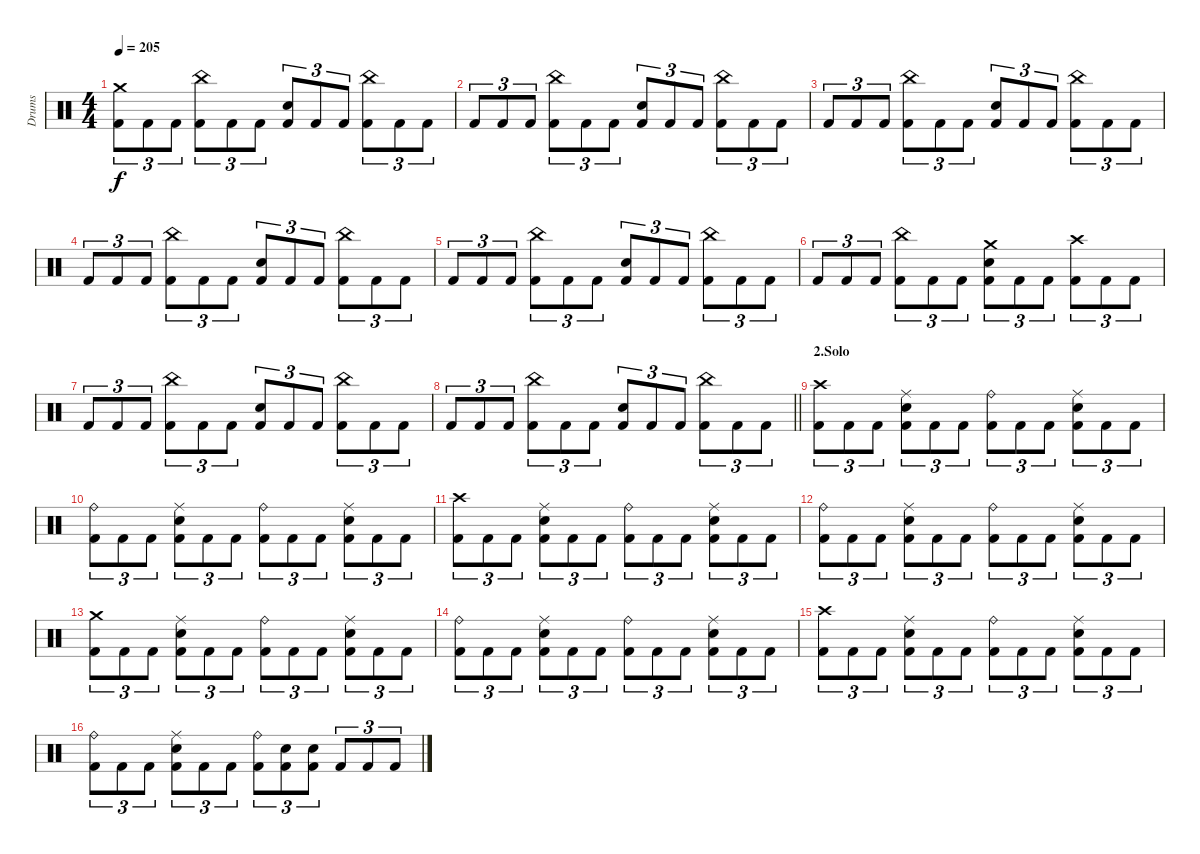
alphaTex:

\track ("Drums" "Drums") {instrument percussion}
\staff {score}
\articulation defaults
\ts (4 4)
\tempo 205
\clef neutral
\ks c
("Crash medium (hit)" "Kick (hit) 2").8{tu (3 2) dy f} "Kick (hit) 2".8{tu (3 2)} "Kick (hit) 2".8{tu (3 2)} ("China (hit)" "Kick (hit) 2").8{tu (3 2)} "Kick (hit) 2".8{tu (3 2)} "Kick (hit) 2".8{tu (3 2)} ("Electric Snare (hit)" "Kick (hit) 2").8{tu (3 2)} "Kick (hit) 2".8{tu (3 2)} "Kick (hit) 2".8{tu (3 2)} ("China (hit)" "Kick (hit) 2").8{tu (3 2)} "Kick (hit) 2".8{tu (3 2)} "Kick (hit) 2".8{tu (3 2)} |
"Kick (hit) 2".8{tu (3 2)} "Kick (hit) 2".8{tu (3 2)} "Kick (hit) 2".8{tu (3 2)} ("China (hit)" "Kick (hit) 2").8{tu (3 2)} "Kick (hit) 2".8{tu (3 2)} "Kick (hit) 2".8{tu (3 2)} ("Electric Snare (hit)" "Kick (hit) 2").8{tu (3 2)} "Kick (hit) 2".8{tu (3 2)} "Kick (hit) 2".8{tu (3 2)} ("China (hit)" "Kick (hit) 2").8{tu (3 2)} "Kick (hit) 2".8{tu (3 2)} "Kick (hit) 2".8{tu (3 2)} |
"Kick (hit) 2".8{tu (3 2)} "Kick (hit) 2".8{tu (3 2)} "Kick (hit) 2".8{tu (3 2)} ("China (hit)" "Kick (hit) 2").8{tu (3 2)} "Kick (hit) 2".8{tu (3 2)} "Kick (hit) 2".8{tu (3 2)} ("Electric Snare (hit)" "Kick (hit) 2").8{tu (3 2)} "Kick (hit) 2".8{tu (3 2)} "Kick (hit) 2".8{tu (3 2)} ("China (hit)" "Kick (hit) 2").8{tu (3 2)} "Kick (hit) 2".8{tu (3 2)} "Kick (hit) 2".8{tu (3 2)} |
"Kick (hit) 2".8{tu (3 2)} "Kick (hit) 2".8{tu (3 2)} "Kick (hit) 2".8{tu (3 2)} ("China (hit)" "Kick (hit) 2").8{tu (3 2)} "Kick (hit) 2".8{tu (3 2)} "Kick (hit) 2".8{tu (3 2)} ("Electric Snare (hit)" "Kick (hit) 2").8{tu (3 2)} "Kick (hit) 2".8{tu (3 2)} "Kick (hit) 2".8{tu (3 2)} ("China (hit)" "Kick (hit) 2").8{tu (3 2)} "Kick (hit) 2".8{tu (3 2)} "Kick (hit) 2".8{tu (3 2)} |
"Kick (hit) 2".8{tu (3 2)} "Kick (hit) 2".8{tu (3 2)} "Kick (hit) 2".8{tu (3 2)} ("China (hit)" "Kick (hit) 2").8{tu (3 2)} "Kick (hit) 2".8{tu (3 2)} "Kick (hit) 2".8{tu (3 2)} ("Electric Snare (hit)" "Kick (hit) 2").8{tu (3 2)} "Kick (hit) 2".8{tu (3 2)} "Kick (hit) 2".8{tu (3 2)} ("China (hit)" "Kick (hit) 2").8{tu (3 2)} "Kick (hit) 2".8{tu (3 2)} "Kick (hit) 2".8{tu (3 2)} |
"Kick (hit) 2".8{tu (3 2)} "Kick (hit) 2".8{tu (3 2)} "Kick (hit) 2".8{tu (3 2)} ("China (hit)" "Kick (hit) 2").8{tu (3 2)} "Kick (hit) 2".8{tu (3 2)} "Kick (hit) 2".8{tu (3 2)} ("Crash medium (hit)" "Electric Snare (hit)" "Kick (hit) 2").8{tu (3 2)} "Kick (hit) 2".8{tu (3 2)} "Kick (hit) 2".8{tu (3 2)} ("Crash high (hit)" "Kick (hit) 2").8{tu (3 2)} "Kick (hit) 2".8{tu (3 2)} "Kick (hit) 2".8{tu (3 2)} |
"Kick (hit) 2".8{tu (3 2)} "Kick (hit) 2".8{tu (3 2)} "Kick (hit) 2".8{tu (3 2)} ("China (hit)" "Kick (hit) 2").8{tu (3 2)} "Kick (hit) 2".8{tu (3 2)} "Kick (hit) 2".8{tu (3 2)} ("Electric Snare (hit)" "Kick (hit) 2").8{tu (3 2)} "Kick (hit) 2".8{tu (3 2)} "Kick (hit) 2".8{tu (3 2)} ("China (hit)" "Kick (hit) 2").8{tu (3 2)} "Kick (hit) 2".8{tu (3 2)} "Kick (hit) 2".8{tu (3 2)} |
\barLineRight lightlight "Kick (hit) 2".8{tu (3 2)} "Kick (hit) 2".8{tu (3 2)} "Kick (hit) 2".8{tu (3 2)}
("China (hit)" "Kick (hit) 2").8{tu (3 2)} "Kick (hit) 2".8{tu (3 2)} "Kick (hit) 2".8{tu (3 2)} ("Electric Snare (hit)" "Kick (hit) 2").8{tu (3 2)} "Kick (hit) 2".8{tu (3 2)} "Kick (hit) 2".8{tu (3 2)} ("China (hit)" "Kick (hit) 2").8{tu (3 2)} "Kick (hit) 2".8{tu (3 2)} "Kick (hit) 2".8{tu (3 2)} |
\section ("" "2.Solo")
("Crash high (hit)" "Kick (hit) 2").8{tu (3 2)} "Kick (hit) 2".8{tu (3 2)} "Kick (hit) 2".8{tu (3 2)} ("Ride (middle)" "Electric Snare (hit)" "Kick (hit) 2").8{tu (3 2)} "Kick (hit) 2".8{tu (3 2)} "Kick (hit) 2".8{tu (3 2)} ("Ride (bell)" "Kick (hit) 2").8{tu (3 2)} "Kick (hit) 2".8{tu (3 2)} "Kick (hit) 2".8{tu (3 2)} ("Ride (middle)" "Electric Snare (hit)" "Kick (hit) 2").8{tu (3 2)} "Kick (hit) 2".8{tu (3 2)} "Kick (hit) 2".8{tu (3 2)} |
("Ride (bell)" "Kick (hit) 2").8{tu (3 2)} "Kick (hit) 2".8{tu (3 2)} "Kick (hit) 2".8{tu (3 2)} ("Ride (middle)" "Electric Snare (hit)" "Kick (hit) 2").8{tu (3 2)} "Kick (hit) 2".8{tu (3 2)} "Kick (hit) 2".8{tu (3 2)} ("Ride (bell)" "Kick (hit) 2").8{tu (3 2)} "Kick (hit) 2".8{tu (3 2)} "Kick (hit) 2".8{tu (3 2)} ("Ride (middle)" "Electric Snare (hit)" "Kick (hit) 2").8{tu (3 2)} "Kick (hit) 2".8{tu (3 2)} "Kick (hit) 2".8{tu (3 2)} |
("Crash high (hit)" "Kick (hit) 2").8{tu (3 2)} "Kick (hit) 2".8{tu (3 2)} "Kick (hit) 2".8{tu (3 2)} ("Ride (middle)" "Electric Snare (hit)" "Kick (hit) 2").8{tu (3 2)} "Kick (hit) 2".8{tu (3 2)} "Kick (hit) 2".8{tu (3 2)} ("Ride (bell)" "Kick (hit) 2").8{tu (3 2)} "Kick (hit) 2".8{tu (3 2)} "Kick (hit) 2".8{tu (3 2)} ("Ride (middle)" "Electric Snare (hit)" "Kick (hit) 2").8{tu (3 2)} "Kick (hit) 2".8{tu (3 2)} "Kick (hit) 2".8{tu (3 2)} |
("Ride (bell)" "Kick (hit) 2").8{tu (3 2)} "Kick (hit) 2".8{tu (3 2)} "Kick (hit) 2".8{tu (3 2)} ("Ride (middle)" "Electric Snare (hit)" "Kick (hit) 2").8{tu (3 2)} "Kick (hit) 2".8{tu (3 2)} "Kick (hit) 2".8{tu (3 2)} ("Ride (bell)" "Kick (hit) 2").8{tu (3 2)} "Kick (hit) 2".8{tu (3 2)} "Kick (hit) 2".8{tu (3 2)} ("Ride (middle)" "Electric Snare (hit)" "Kick (hit) 2").8{tu (3 2)} "Kick (hit) 2".8{tu (3 2)} "Kick (hit) 2".8{tu (3 2)} |
("Crash medium (hit)" "Kick (hit) 2").8{tu (3 2)} "Kick (hit) 2".8{tu (3 2)} "Kick (hit) 2".8{tu (3 2)} ("Ride (middle)" "Electric Snare (hit)" "Kick (hit) 2").8{tu (3 2)} "Kick (hit) 2".8{tu (3 2)} "Kick (hit) 2".8{tu (3 2)} ("Ride (bell)" "Kick (hit) 2").8{tu (3 2)} "Kick (hit) 2".8{tu (3 2)} "Kick (hit) 2".8{tu (3 2)} ("Ride (middle)" "Electric Snare (hit)" "Kick (hit) 2").8{tu (3 2)} "Kick (hit) 2".8{tu (3 2)} "Kick (hit) 2".8{tu (3 2)} |
("Ride (bell)" "Kick (hit) 2").8{tu (3 2)} "Kick (hit) 2".8{tu (3 2)} "Kick (hit) 2".8{tu (3 2)} ("Ride (middle)" "Electric Snare (hit)" "Kick (hit) 2").8{tu (3 2)} "Kick (hit) 2".8{tu (3 2)} "Kick (hit) 2".8{tu (3 2)} ("Ride (bell)" "Kick (hit) 2").8{tu (3 2)} "Kick (hit) 2".8{tu (3 2)} "Kick (hit) 2".8{tu (3 2)} ("Ride (middle)" "Electric Snare (hit)" "Kick (hit) 2").8{tu (3 2)} "Kick (hit) 2".8{tu (3 2)} "Kick (hit) 2".8{tu (3 2)} |
("Crash high (hit)" "Kick (hit) 2").8{tu (3 2)} "Kick (hit) 2".8{tu (3 2)} "Kick (hit) 2".8{tu (3 2)} ("Ride (middle)" "Electric Snare (hit)" "Kick (hit) 2").8{tu (3 2)} "Kick (hit) 2".8{tu (3 2)} "Kick (hit) 2".8{tu (3 2)} ("Ride (bell)" "Kick (hit) 2").8{tu (3 2)} "Kick (hit) 2".8{tu (3 2)} "Kick (hit) 2".8{tu (3 2)} ("Ride (middle)" "Electric Snare (hit)" "Kick (hit) 2").8{tu (3 2)} "Kick (hit) 2".8{tu (3 2)} "Kick (hit) 2".8{tu (3 2)} |
("Ride (bell)" "Kick (hit) 2").8{tu (3 2)} "Kick (hit) 2".8{tu (3 2)} "Kick (hit) 2".8{tu (3 2)} ("Ride (middle)" "Electric Snare (hit)" "Kick (hit) 2").8{tu (3 2)} "Kick (hit) 2".8{tu (3 2)} "Kick (hit) 2".8{tu (3 2)} ("Ride (bell)" "Kick (hit) 2").8{tu (3 2)} ("Electric Snare (hit)" "Kick (hit) 2").8{tu (3 2)} ("Electric Snare (hit)" "Kick (hit) 2").8{tu (3 2)} "Kick (hit) 2".8{tu (3 2)} "Kick (hit) 2".8{tu (3 2)} "Kick (hit) 2".8{tu (3 2)}
